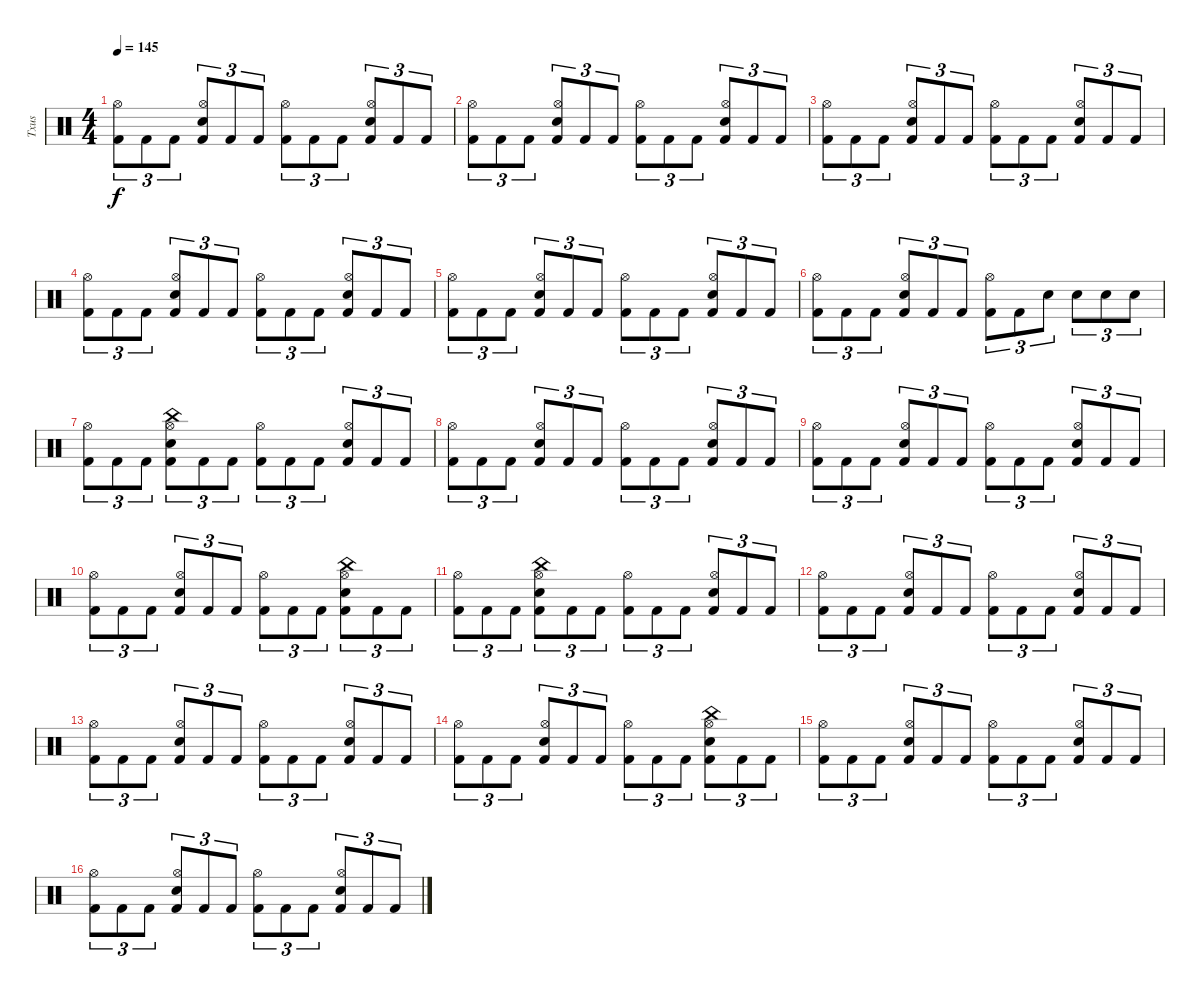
\track ("Txus" "Txus") {instrument percussion}
\staff {score}
\articulation defaults
\ts (4 4)
\tempo 145
\clef neutral
\ks c
("Kick (hit) 2" "Hi-Hat (open)").8{tu (3 2) dy f} "Kick (hit) 2".8{tu (3 2)} "Kick (hit) 2".8{tu (3 2)} ("Kick (hit) 2" "Hi-Hat (open)" "Electric Snare (hit)").8{tu (3 2)} "Kick (hit) 2".8{tu (3 2)} "Kick (hit) 2".8{tu (3 2)} ("Kick (hit) 2" "Hi-Hat (open)").8{tu (3 2)} "Kick (hit) 2".8{tu (3 2)} "Kick (hit) 2".8{tu (3 2)} ("Kick (hit) 2" "Hi-Hat (open)" "Electric Snare (hit)").8{tu (3 2)} "Kick (hit) 2".8{tu (3 2)} "Kick (hit) 2".8{tu (3 2)} |
("Kick (hit) 2" "Hi-Hat (open)").8{tu (3 2)} "Kick (hit) 2".8{tu (3 2)} "Kick (hit) 2".8{tu (3 2)} ("Kick (hit) 2" "Hi-Hat (open)" "Electric Snare (hit)").8{tu (3 2)} "Kick (hit) 2".8{tu (3 2)} "Kick (hit) 2".8{tu (3 2)} ("Kick (hit) 2" "Hi-Hat (open)").8{tu (3 2)} "Kick (hit) 2".8{tu (3 2)} "Kick (hit) 2".8{tu (3 2)} ("Kick (hit) 2" "Hi-Hat (open)" "Electric Snare (hit)").8{tu (3 2)} "Kick (hit) 2".8{tu (3 2)} "Kick (hit) 2".8{tu (3 2)} |
("Kick (hit) 2" "Hi-Hat (open)").8{tu (3 2)} "Kick (hit) 2".8{tu (3 2)} "Kick (hit) 2".8{tu (3 2)} ("Kick (hit) 2" "Hi-Hat (open)" "Electric Snare (hit)").8{tu (3 2)} "Kick (hit) 2".8{tu (3 2)} "Kick (hit) 2".8{tu (3 2)} ("Kick (hit) 2" "Hi-Hat (open)").8{tu (3 2)} "Kick (hit) 2".8{tu (3 2)} "Kick (hit) 2".8{tu (3 2)} ("Kick (hit) 2" "Hi-Hat (open)" "Electric Snare (hit)").8{tu (3 2)} "Kick (hit) 2".8{tu (3 2)} "Kick (hit) 2".8{tu (3 2)} |
("Kick (hit) 2" "Hi-Hat (open)").8{tu (3 2)} "Kick (hit) 2".8{tu (3 2)} "Kick (hit) 2".8{tu (3 2)} ("Kick (hit) 2" "Hi-Hat (open)" "Electric Snare (hit)").8{tu (3 2)} "Kick (hit) 2".8{tu (3 2)} "Kick (hit) 2".8{tu (3 2)} ("Kick (hit) 2" "Hi-Hat (open)").8{tu (3 2)} "Kick (hit) 2".8{tu (3 2)} "Kick (hit) 2".8{tu (3 2)} ("Kick (hit) 2" "Hi-Hat (open)" "Electric Snare (hit)").8{tu (3 2)} "Kick (hit) 2".8{tu (3 2)} "Kick (hit) 2".8{tu (3 2)} |
("Kick (hit) 2" "Hi-Hat (open)").8{tu (3 2)} "Kick (hit) 2".8{tu (3 2)} "Kick (hit) 2".8{tu (3 2)} ("Kick (hit) 2" "Hi-Hat (open)" "Electric Snare (hit)").8{tu (3 2)} "Kick (hit) 2".8{tu (3 2)} "Kick (hit) 2".8{tu (3 2)} ("Kick (hit) 2" "Hi-Hat (open)").8{tu (3 2)} "Kick (hit) 2".8{tu (3 2)} "Kick (hit) 2".8{tu (3 2)} ("Kick (hit) 2" "Hi-Hat (open)" "Electric Snare (hit)").8{tu (3 2)} "Kick (hit) 2".8{tu (3 2)} "Kick (hit) 2".8{tu (3 2)} |
("Kick (hit) 2" "Hi-Hat (open)").8{tu (3 2)} "Kick (hit) 2".8{tu (3 2)} "Kick (hit) 2".8{tu (3 2)} ("Kick (hit) 2" "Hi-Hat (open)" "Electric Snare (hit)").8{tu (3 2)} "Kick (hit) 2".8{tu (3 2)} "Kick (hit) 2".8{tu (3 2)} ("Kick (hit) 2" "Hi-Hat (open)").8{tu (3 2)} "Kick (hit) 2".8{tu (3 2)} "Electric Snare (hit)".8{tu (3 2)} "Electric Snare (hit)".8{tu (3 2)} "Electric Snare (hit)".8{tu (3 2)} "Electric Snare (hit)".8{tu (3 2)} |
("Kick (hit) 2" "Hi-Hat (open)").8{tu (3 2)} "Kick (hit) 2".8{tu (3 2)} "Kick (hit) 2".8{tu (3 2)} ("Kick (hit) 2" "Hi-Hat (open)" "Electric Snare (hit)" "China (hit)").8{tu (3 2)} "Kick (hit) 2".8{tu (3 2)} "Kick (hit) 2".8{tu (3 2)} ("Kick (hit) 2" "Hi-Hat (open)").8{tu (3 2)} "Kick (hit) 2".8{tu (3 2)} "Kick (hit) 2".8{tu (3 2)} ("Kick (hit) 2" "Hi-Hat (open)" "Electric Snare (hit)").8{tu (3 2)} "Kick (hit) 2".8{tu (3 2)} "Kick (hit) 2".8{tu (3 2)} |
("Kick (hit) 2" "Hi-Hat (open)").8{tu (3 2)} "Kick (hit) 2".8{tu (3 2)} "Kick (hit) 2".8{tu (3 2)} ("Kick (hit) 2" "Hi-Hat (open)" "Electric Snare (hit)").8{tu (3 2)} "Kick (hit) 2".8{tu (3 2)} "Kick (hit) 2".8{tu (3 2)} ("Kick (hit) 2" "Hi-Hat (open)").8{tu (3 2)} "Kick (hit) 2".8{tu (3 2)} "Kick (hit) 2".8{tu (3 2)} ("Kick (hit) 2" "Hi-Hat (open)" "Electric Snare (hit)").8{tu (3 2)} "Kick (hit) 2".8{tu (3 2)} "Kick (hit) 2".8{tu (3 2)} |
("Kick (hit) 2" "Hi-Hat (open)").8{tu (3 2)} "Kick (hit) 2".8{tu (3 2)} "Kick (hit) 2".8{tu (3 2)} ("Kick (hit) 2" "Hi-Hat (open)" "Electric Snare (hit)").8{tu (3 2)} "Kick (hit) 2".8{tu (3 2)} "Kick (hit) 2".8{tu (3 2)} ("Kick (hit) 2" "Hi-Hat (open)").8{tu (3 2)} "Kick (hit) 2".8{tu (3 2)} "Kick (hit) 2".8{tu (3 2)} ("Kick (hit) 2" "Hi-Hat (open)" "Electric Snare (hit)").8{tu (3 2)} "Kick (hit) 2".8{tu (3 2)} "Kick (hit) 2".8{tu (3 2)} |
("Kick (hit) 2" "Hi-Hat (open)").8{tu (3 2)} "Kick (hit) 2".8{tu (3 2)} "Kick (hit) 2".8{tu (3 2)} ("Kick (hit) 2" "Hi-Hat (open)" "Electric Snare (hit)").8{tu (3 2)} "Kick (hit) 2".8{tu (3 2)} "Kick (hit) 2".8{tu (3 2)} ("Kick (hit) 2" "Hi-Hat (open)").8{tu (3 2)} "Kick (hit) 2".8{tu (3 2)} "Kick (hit) 2".8{tu (3 2)} ("Kick (hit) 2" "Hi-Hat (open)" "Electric Snare (hit)" "China (hit)").8{tu (3 2)} "Kick (hit) 2".8{tu (3 2)} "Kick (hit) 2".8{tu (3 2)} |
("Kick (hit) 2" "Hi-Hat (open)").8{tu (3 2)} "Kick (hit) 2".8{tu (3 2)} "Kick (hit) 2".8{tu (3 2)} ("Kick (hit) 2" "Hi-Hat (open)" "Electric Snare (hit)" "China (hit)").8{tu (3 2)} "Kick (hit) 2".8{tu (3 2)} "Kick (hit) 2".8{tu (3 2)} ("Kick (hit) 2" "Hi-Hat (open)").8{tu (3 2)} "Kick (hit) 2".8{tu (3 2)} "Kick (hit) 2".8{tu (3 2)} ("Kick (hit) 2" "Hi-Hat (open)" "Electric Snare (hit)").8{tu (3 2)} "Kick (hit) 2".8{tu (3 2)} "Kick (hit) 2".8{tu (3 2)} |
("Kick (hit) 2" "Hi-Hat (open)").8{tu (3 2)} "Kick (hit) 2".8{tu (3 2)} "Kick (hit) 2".8{tu (3 2)} ("Kick (hit) 2" "Hi-Hat (open)" "Electric Snare (hit)").8{tu (3 2)} "Kick (hit) 2".8{tu (3 2)} "Kick (hit) 2".8{tu (3 2)} ("Kick (hit) 2" "Hi-Hat (open)").8{tu (3 2)} "Kick (hit) 2".8{tu (3 2)} "Kick (hit) 2".8{tu (3 2)} ("Kick (hit) 2" "Hi-Hat (open)" "Electric Snare (hit)").8{tu (3 2)} "Kick (hit) 2".8{tu (3 2)} "Kick (hit) 2".8{tu (3 2)} |
("Kick (hit) 2" "Hi-Hat (open)").8{tu (3 2)} "Kick (hit) 2".8{tu (3 2)} "Kick (hit) 2".8{tu (3 2)} ("Kick (hit) 2" "Hi-Hat (open)" "Electric Snare (hit)").8{tu (3 2)} "Kick (hit) 2".8{tu (3 2)} "Kick (hit) 2".8{tu (3 2)} ("Kick (hit) 2" "Hi-Hat (open)").8{tu (3 2)} "Kick (hit) 2".8{tu (3 2)} "Kick (hit) 2".8{tu (3 2)} ("Kick (hit) 2" "Hi-Hat (open)" "Electric Snare (hit)").8{tu (3 2)} "Kick (hit) 2".8{tu (3 2)} "Kick (hit) 2".8{tu (3 2)} |
("Kick (hit) 2" "Hi-Hat (open)").8{tu (3 2)} "Kick (hit) 2".8{tu (3 2)} "Kick (hit) 2".8{tu (3 2)} ("Kick (hit) 2" "Hi-Hat (open)" "Electric Snare (hit)").8{tu (3 2)} "Kick (hit) 2".8{tu (3 2)} "Kick (hit) 2".8{tu (3 2)} ("Kick (hit) 2" "Hi-Hat (open)").8{tu (3 2)} "Kick (hit) 2".8{tu (3 2)} "Kick (hit) 2".8{tu (3 2)} ("Kick (hit) 2" "Hi-Hat (open)" "Electric Snare (hit)" "China (hit)").8{tu (3 2)} "Kick (hit) 2".8{tu (3 2)} "Kick (hit) 2".8{tu (3 2)} |
("Kick (hit) 2" "Hi-Hat (open)").8{tu (3 2)} "Kick (hit) 2".8{tu (3 2)} "Kick (hit) 2".8{tu (3 2)} ("Kick (hit) 2" "Hi-Hat (open)" "Electric Snare (hit)").8{tu (3 2)} "Kick (hit) 2".8{tu (3 2)} "Kick (hit) 2".8{tu (3 2)} ("Kick (hit) 2" "Hi-Hat (open)").8{tu (3 2)} "Kick (hit) 2".8{tu (3 2)} "Kick (hit) 2".8{tu (3 2)} ("Kick (hit) 2" "Hi-Hat (open)" "Electric Snare (hit)").8{tu (3 2)} "Kick (hit) 2".8{tu (3 2)} "Kick (hit) 2".8{tu (3 2)} |
("Kick (hit) 2" "Hi-Hat (open)").8{tu (3 2)} "Kick (hit) 2".8{tu (3 2)} "Kick (hit) 2".8{tu (3 2)} ("Kick (hit) 2" "Hi-Hat (open)" "Electric Snare (hit)").8{tu (3 2)} "Kick (hit) 2".8{tu (3 2)} "Kick (hit) 2".8{tu (3 2)} ("Kick (hit) 2" "Hi-Hat (open)").8{tu (3 2)} "Kick (hit) 2".8{tu (3 2)} "Kick (hit) 2".8{tu (3 2)} ("Kick (hit) 2" "Hi-Hat (open)" "Electric Snare (hit)").8{tu (3 2)} "Kick (hit) 2".8{tu (3 2)} "Kick (hit) 2".8{tu (3 2)}
